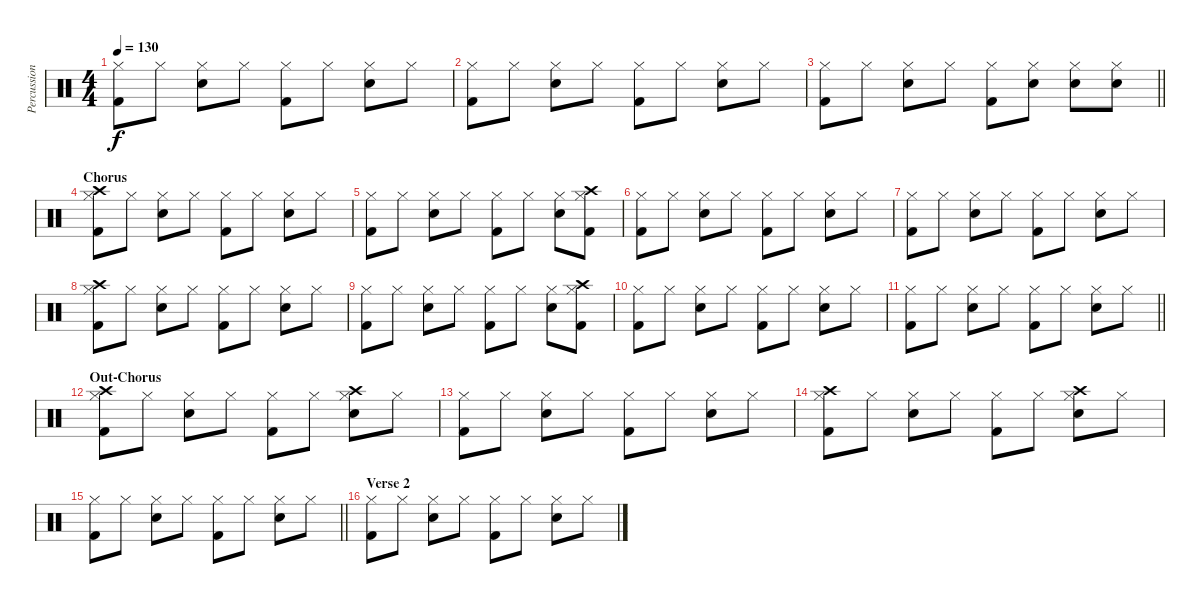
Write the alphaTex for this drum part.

\track ("Percussion" "Percussion") {instrument percussion}
\staff {score}
\articulation defaults
\ts (4 4)
\tempo 130
\clef neutral
\ks c
("Kick (hit) 2" "Hi-Hat (closed)").8{dy f} "Hi-Hat (closed)".8 ("Hi-Hat (closed)" "Snare (hit) 2").8 "Hi-Hat (closed)".8 ("Hi-Hat (closed)" "Kick (hit) 2").8 "Hi-Hat (closed)".8 ("Hi-Hat (closed)" "Snare (hit) 2").8 "Hi-Hat (closed)".8 |
("Kick (hit) 2" "Hi-Hat (closed)").8 "Hi-Hat (closed)".8 ("Hi-Hat (closed)" "Snare (hit) 2").8 "Hi-Hat (closed)".8 ("Hi-Hat (closed)" "Kick (hit) 2").8 "Hi-Hat (closed)".8 ("Hi-Hat (closed)" "Snare (hit) 2").8 "Hi-Hat (closed)".8 |
\barLineRight lightlight
("Kick (hit) 2" "Hi-Hat (closed)").8 "Hi-Hat (closed)".8 ("Hi-Hat (closed)" "Snare (hit) 2").8 "Hi-Hat (closed)".8 ("Hi-Hat (closed)" "Kick (hit) 2").8 ("Hi-Hat (closed)" "Snare (hit) 2").8 ("Hi-Hat (closed)" "Snare (hit) 2").8 ("Hi-Hat (closed)" "Snare (hit) 2").8 |
\section ("" "Chorus")
("Kick (hit) 2" "Hi-Hat (closed)" "Crash high (hit)").8 "Hi-Hat (closed)".8 ("Hi-Hat (closed)" "Snare (hit) 2").8 "Hi-Hat (closed)".8 ("Hi-Hat (closed)" "Kick (hit) 2").8 "Hi-Hat (closed)".8 ("Hi-Hat (closed)" "Snare (hit) 2").8 "Hi-Hat (closed)".8 |
("Kick (hit) 2" "Hi-Hat (closed)").8 "Hi-Hat (closed)".8 ("Hi-Hat (closed)" "Snare (hit) 2").8 "Hi-Hat (closed)".8 ("Hi-Hat (closed)" "Kick (hit) 2").8 "Hi-Hat (closed)".8 ("Hi-Hat (closed)" "Snare (hit) 2").8 ("Hi-Hat (closed)" "Kick (hit) 2" "Crash high (hit)").8 |
("Kick (hit) 2" "Hi-Hat (closed)").8 "Hi-Hat (closed)".8 ("Hi-Hat (closed)" "Snare (hit) 2").8 "Hi-Hat (closed)".8 ("Hi-Hat (closed)" "Kick (hit) 2").8 "Hi-Hat (closed)".8 ("Hi-Hat (closed)" "Snare (hit) 2").8 "Hi-Hat (closed)".8 |
("Kick (hit) 2" "Hi-Hat (closed)").8 "Hi-Hat (closed)".8 ("Hi-Hat (closed)" "Snare (hit) 2").8 "Hi-Hat (closed)".8 ("Hi-Hat (closed)" "Kick (hit) 2").8 "Hi-Hat (closed)".8 ("Hi-Hat (closed)" "Snare (hit) 2").8 "Hi-Hat (closed)".8 |
("Kick (hit) 2" "Hi-Hat (closed)" "Crash high (hit)").8 "Hi-Hat (closed)".8 ("Hi-Hat (closed)" "Snare (hit) 2").8 "Hi-Hat (closed)".8 ("Hi-Hat (closed)" "Kick (hit) 2").8 "Hi-Hat (closed)".8 ("Hi-Hat (closed)" "Snare (hit) 2").8 "Hi-Hat (closed)".8 |
("Kick (hit) 2" "Hi-Hat (closed)").8 "Hi-Hat (closed)".8 ("Hi-Hat (closed)" "Snare (hit) 2").8 "Hi-Hat (closed)".8 ("Hi-Hat (closed)" "Kick (hit) 2").8 "Hi-Hat (closed)".8 ("Hi-Hat (closed)" "Snare (hit) 2").8 ("Hi-Hat (closed)" "Kick (hit) 2" "Crash high (hit)").8 |
("Kick (hit) 2" "Hi-Hat (closed)").8 "Hi-Hat (closed)".8 ("Hi-Hat (closed)" "Snare (hit) 2").8 "Hi-Hat (closed)".8 ("Hi-Hat (closed)" "Kick (hit) 2").8 "Hi-Hat (closed)".8 ("Hi-Hat (closed)" "Snare (hit) 2").8 "Hi-Hat (closed)".8 |
\barLineRight lightlight
("Kick (hit) 2" "Hi-Hat (closed)").8 "Hi-Hat (closed)".8 ("Hi-Hat (closed)" "Snare (hit) 2").8 "Hi-Hat (closed)".8 ("Hi-Hat (closed)" "Kick (hit) 2").8 "Hi-Hat (closed)".8 ("Hi-Hat (closed)" "Snare (hit) 2").8 "Hi-Hat (closed)".8 |
\section ("" "Out-Chorus")
("Kick (hit) 2" "Hi-Hat (closed)" "Crash high (hit)").8 "Hi-Hat (closed)".8 ("Hi-Hat (closed)" "Snare (hit) 2").8 "Hi-Hat (closed)".8 ("Hi-Hat (closed)" "Kick (hit) 2").8 "Hi-Hat (closed)".8 ("Hi-Hat (closed)" "Snare (hit) 2" "Crash high (hit)").8 "Hi-Hat (closed)".8 |
("Kick (hit) 2" "Hi-Hat (closed)").8 "Hi-Hat (closed)".8 ("Hi-Hat (closed)" "Snare (hit) 2").8 "Hi-Hat (closed)".8 ("Hi-Hat (closed)" "Kick (hit) 2").8 "Hi-Hat (closed)".8 ("Hi-Hat (closed)" "Snare (hit) 2").8 "Hi-Hat (closed)".8 |
("Kick (hit) 2" "Hi-Hat (closed)" "Crash high (hit)").8 "Hi-Hat (closed)".8 ("Hi-Hat (closed)" "Snare (hit) 2").8 "Hi-Hat (closed)".8 ("Hi-Hat (closed)" "Kick (hit) 2").8 "Hi-Hat (closed)".8 ("Hi-Hat (closed)" "Snare (hit) 2" "Crash high (hit)").8 "Hi-Hat (closed)".8 |
\barLineRight lightlight
("Kick (hit) 2" "Hi-Hat (closed)").8 "Hi-Hat (closed)".8 ("Hi-Hat (closed)" "Snare (hit) 2").8 "Hi-Hat (closed)".8 ("Hi-Hat (closed)" "Kick (hit) 2").8 "Hi-Hat (closed)".8 ("Hi-Hat (closed)" "Snare (hit) 2").8 "Hi-Hat (closed)".8 |
\section ("" "Verse 2")
("Kick (hit) 2" "Hi-Hat (closed)").8 "Hi-Hat (closed)".8 ("Hi-Hat (closed)" "Snare (hit) 2").8 "Hi-Hat (closed)".8 ("Hi-Hat (closed)" "Kick (hit) 2").8 "Hi-Hat (closed)".8 ("Hi-Hat (closed)" "Snare (hit) 2").8 "Hi-Hat (closed)".8
